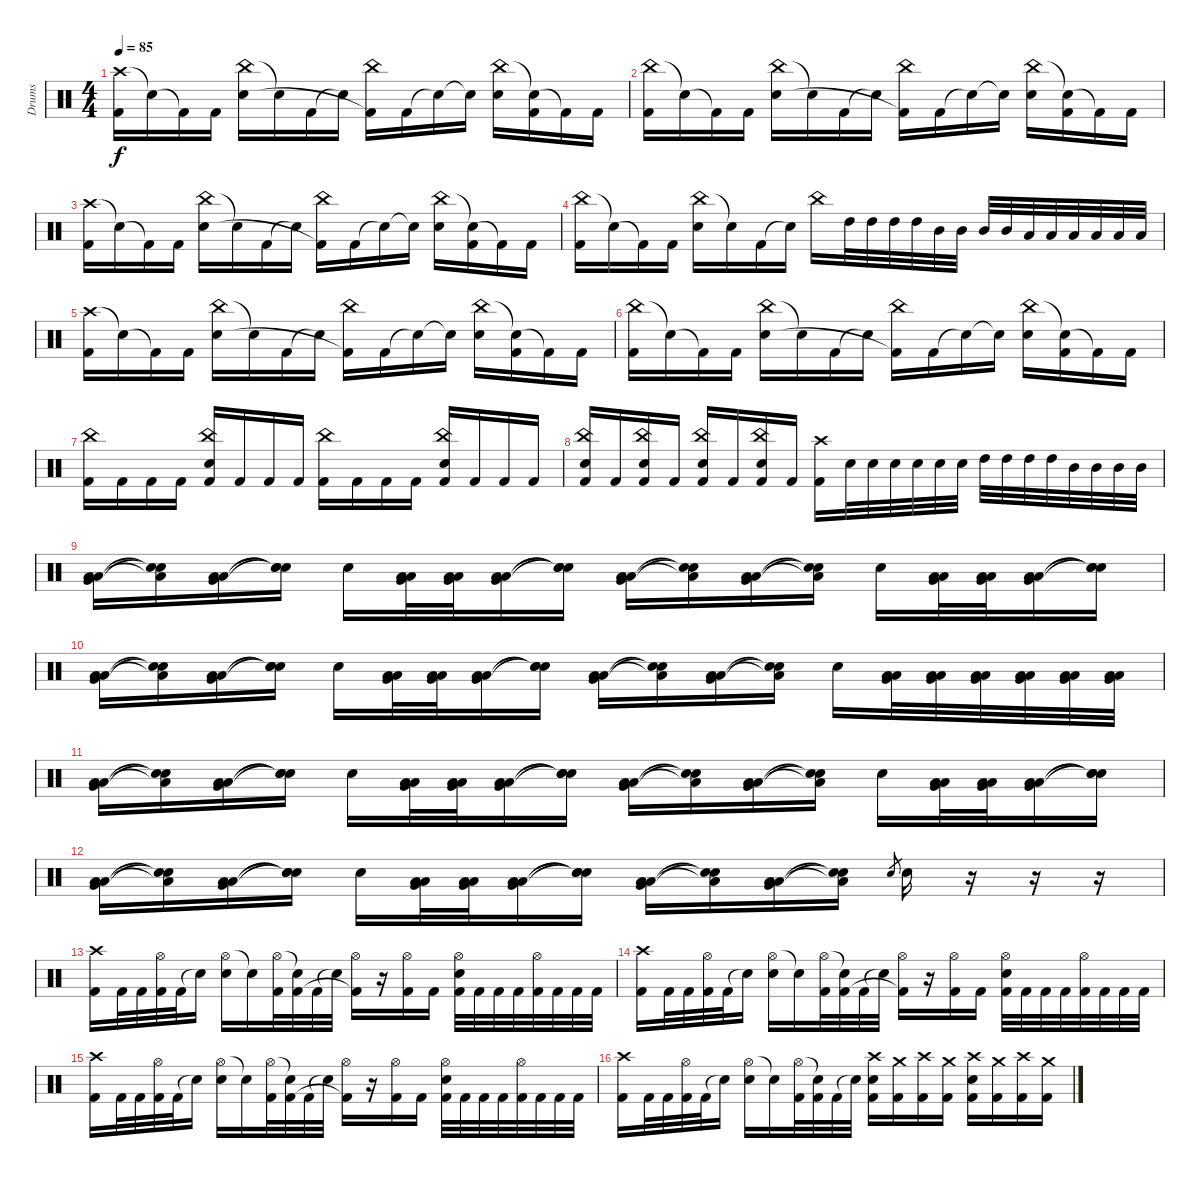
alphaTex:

\track ("Drums" "Drums") {instrument percussion}
\staff {score}
\articulation defaults
\ts (4 4)
\tempo 85
\clef neutral
\ks c
("Crash high (hit)" "Kick (hit) 2").16{dy f} "Snare (hit)"{t}.16 "Kick (hit) 2"{t}.16 "Kick (hit) 2".16 ("China (hit)" "Electric Snare (hit)").16 "Snare (hit)"{t}.16 "Kick (hit) 2".16 "Snare (hit)"{t}.16 ("China (hit)" "Kick (hit) 2"{t}).16 "Kick (hit) 2".16 "Snare (hit)"{t}.16 "Snare (hit)"{t}.16 ("China (hit)" "Electric Snare (hit)").16 ("Snare (hit)"{t} "Kick (hit) 2").16 "Kick (hit) 2"{t}.16 "Kick (hit) 2".16 |
("China (hit)" "Kick (hit) 2").16 "Snare (hit)"{t}.16 "Kick (hit) 2"{t}.16 "Kick (hit) 2".16 ("China (hit)" "Electric Snare (hit)").16 "Snare (hit)"{t}.16 "Kick (hit) 2".16 "Snare (hit)"{t}.16 ("China (hit)" "Kick (hit) 2"{t}).16 "Kick (hit) 2".16 "Snare (hit)"{t}.16 "Snare (hit)"{t}.16 ("China (hit)" "Electric Snare (hit)").16 ("Snare (hit)"{t} "Kick (hit) 2").16 "Kick (hit) 2"{t}.16 "Kick (hit) 2".16 |
("Crash high (hit)" "Kick (hit) 2").16 "Snare (hit)"{t}.16 "Kick (hit) 2"{t}.16 "Kick (hit) 2".16 ("China (hit)" "Electric Snare (hit)").16 "Snare (hit)"{t}.16 "Kick (hit) 2".16 "Snare (hit)"{t}.16 ("China (hit)" "Kick (hit) 2"{t}).16 "Kick (hit) 2".16 "Snare (hit)"{t}.16 "Snare (hit)"{t}.16 ("China (hit)" "Electric Snare (hit)").16 ("Snare (hit)"{t} "Kick (hit) 2").16 "Kick (hit) 2"{t}.16 "Kick (hit) 2".16 |
("China (hit)" "Kick (hit) 2").16 "Snare (hit)"{t}.16 "Kick (hit) 2"{t}.16 "Kick (hit) 2".16 ("China (hit)" "Electric Snare (hit)").16 "Snare (hit)"{t}.16 "Kick (hit) 2".16 "Snare (hit)"{t}.16 "China (hit)".16 "High Tom (hit)".32 "High Tom (hit)".32 "High Tom (hit)".32 "High Tom (hit)".32 "Mid Tom (hit)".32 "Mid Tom (hit)".32 "Mid Tom (hit)".32 "Mid Tom (hit)".32 "Low Tom (hit)".32 "Low Tom (hit)".32 "Low Tom (hit)".32 "Low Tom (hit)".32 "Low Tom (hit)".32 "Low Tom (hit)".32 |
("Crash high (hit)" "Kick (hit) 2").16 "Snare (hit)"{t}.16 "Kick (hit) 2"{t}.16 "Kick (hit) 2".16 ("China (hit)" "Electric Snare (hit)").16 "Snare (hit)"{t}.16 "Kick (hit) 2".16 "Snare (hit)"{t}.16 ("China (hit)" "Kick (hit) 2"{t}).16 "Kick (hit) 2".16 "Snare (hit)"{t}.16 "Snare (hit)"{t}.16 ("China (hit)" "Electric Snare (hit)").16 ("Snare (hit)"{t} "Kick (hit) 2").16 "Kick (hit) 2"{t}.16 "Kick (hit) 2".16 |
("China (hit)" "Kick (hit) 2").16 "Snare (hit)"{t}.16 "Kick (hit) 2"{t}.16 "Kick (hit) 2".16 ("China (hit)" "Electric Snare (hit)").16 "Snare (hit)"{t}.16 "Kick (hit) 2".16 "Snare (hit)"{t}.16 ("China (hit)" "Kick (hit) 2"{t}).16 "Kick (hit) 2".16 "Snare (hit)"{t}.16 "Snare (hit)"{t}.16 ("China (hit)" "Electric Snare (hit)").16 ("Snare (hit)"{t} "Kick (hit) 2").16 "Kick (hit) 2"{t}.16 "Kick (hit) 2".16 |
("China (hit)" "Kick (hit) 2").16 "Kick (hit) 2".16 "Kick (hit) 2".16 "Kick (hit) 2".16 ("China (hit)" "Electric Snare (hit)" "Kick (hit) 2").16 "Kick (hit) 2".16 "Kick (hit) 2".16 "Kick (hit) 2".16 ("China (hit)" "Kick (hit) 2").16 "Kick (hit) 2".16 "Kick (hit) 2".16 "Kick (hit) 2".16 ("China (hit)" "Electric Snare (hit)" "Kick (hit) 2").16 "Kick (hit) 2".16 "Kick (hit) 2".16 "Kick (hit) 2".16 |
("China (hit)" "Electric Snare (hit)" "Kick (hit) 2").16 "Kick (hit) 2".16 ("China (hit)" "Electric Snare (hit)" "Kick (hit) 2").16 "Kick (hit) 2".16 ("China (hit)" "Electric Snare (hit)" "Kick (hit) 2").16 "Kick (hit) 2".16 ("China (hit)" "Electric Snare (hit)" "Kick (hit) 2").16 "Kick (hit) 2".16 ("Crash high (hit)" "Kick (hit) 2").16 "Electric Snare (hit)".32 "Electric Snare (hit)".32 "Electric Snare (hit)".32 "Electric Snare (hit)".32 "Electric Snare (hit)".32 "Electric Snare (hit)".32 "High Tom (hit)".32 "High Tom (hit)".32 "High Tom (hit)".32 "High Tom (hit)".32 "Mid Tom (hit)".32 "Mid Tom (hit)".32 "Mid Tom (hit)".32 "Mid Tom (hit)".32 |
("Low Tom (hit)" "Very Low Tom (hit)" "Low Floor Tom (hit)").16 ("Snare (hit)"{t} "Snare (hit)"{t} "Low Floor Tom (hit)"{t}).16 ("Low Tom (hit)" "Very Low Tom (hit)" "Low Floor Tom (hit)").16 ("Snare (hit)"{t} "Snare (hit)"{t} "Snare (hit)"{t}).16 "Electric Snare (hit)".16 ("Low Tom (hit)" "Very Low Tom (hit)" "Low Floor Tom (hit)").32 ("Low Tom (hit)" "Very Low Tom (hit)" "Low Floor Tom (hit)").32 ("Low Tom (hit)" "Very Low Tom (hit)" "Low Floor Tom (hit)").16 ("Snare (hit)"{t} "Snare (hit)"{t} "Snare (hit)"{t}).16 ("Low Tom (hit)" "Very Low Tom (hit)" "Low Floor Tom (hit)").16 ("Snare (hit)"{t} "Snare (hit)"{t} "Low Floor Tom (hit)"{t}).16 ("Low Tom (hit)" "Very Low Tom (hit)" "Low Floor Tom (hit)").16 ("Low Tom (hit)"{t} "Snare (hit)"{t} "Snare (hit)"{t}).16 "Electric Snare (hit)".16 ("Low Tom (hit)" "Very Low Tom (hit)" "Low Floor Tom (hit)").32 ("Low Tom (hit)" "Very Low Tom (hit)" "Low Floor Tom (hit)").32 ("Low Tom (hit)" "Very Low Tom (hit)" "Low Floor Tom (hit)").16 ("Snare (hit)"{t} "Snare (hit)"{t} "Snare (hit)"{t}).16 |
("Low Tom (hit)" "Very Low Tom (hit)" "Low Floor Tom (hit)").16 ("Snare (hit)"{t} "Snare (hit)"{t} "Low Floor Tom (hit)"{t}).16 ("Low Tom (hit)" "Very Low Tom (hit)" "Low Floor Tom (hit)").16 ("Snare (hit)"{t} "Snare (hit)"{t} "Snare (hit)"{t}).16 "Electric Snare (hit)".16 ("Low Tom (hit)" "Very Low Tom (hit)" "Low Floor Tom (hit)").32 ("Low Tom (hit)" "Very Low Tom (hit)" "Low Floor Tom (hit)").32 ("Low Tom (hit)" "Very Low Tom (hit)" "Low Floor Tom (hit)").16 ("Snare (hit)"{t} "Snare (hit)"{t} "Snare (hit)"{t}).16 ("Low Tom (hit)" "Very Low Tom (hit)" "Low Floor Tom (hit)").16 ("Snare (hit)"{t} "Snare (hit)"{t} "Low Floor Tom (hit)"{t}).16 ("Low Tom (hit)" "Very Low Tom (hit)" "Low Floor Tom (hit)").16 ("Low Tom (hit)"{t} "Snare (hit)"{t} "Snare (hit)"{t}).16 "Electric Snare (hit)".16 ("Low Tom (hit)" "Low Floor Tom (hit)" "Very Low Tom (hit)").32 ("Low Tom (hit)" "Low Floor Tom (hit)" "Very Low Tom (hit)").32 ("Low Tom (hit)" "Low Floor Tom (hit)" "Very Low Tom (hit)").32 ("Low Tom (hit)" "Low Floor Tom (hit)" "Very Low Tom (hit)").32 ("Low Tom (hit)" "Low Floor Tom (hit)" "Very Low Tom (hit)").32 ("Low Tom (hit)" "Low Floor Tom (hit)" "Very Low Tom (hit)").32 |
("Low Tom (hit)" "Very Low Tom (hit)" "Low Floor Tom (hit)").16 ("Snare (hit)"{t} "Snare (hit)"{t} "Low Floor Tom (hit)"{t}).16 ("Low Tom (hit)" "Very Low Tom (hit)" "Low Floor Tom (hit)").16 ("Snare (hit)"{t} "Snare (hit)"{t} "Snare (hit)"{t}).16 "Electric Snare (hit)".16 ("Low Tom (hit)" "Very Low Tom (hit)" "Low Floor Tom (hit)").32 ("Low Tom (hit)" "Very Low Tom (hit)" "Low Floor Tom (hit)").32 ("Low Tom (hit)" "Very Low Tom (hit)" "Low Floor Tom (hit)").16 ("Snare (hit)"{t} "Snare (hit)"{t} "Snare (hit)"{t}).16 ("Low Tom (hit)" "Very Low Tom (hit)" "Low Floor Tom (hit)").16 ("Snare (hit)"{t} "Snare (hit)"{t} "Low Floor Tom (hit)"{t}).16 ("Low Tom (hit)" "Very Low Tom (hit)" "Low Floor Tom (hit)").16 ("Low Tom (hit)"{t} "Snare (hit)"{t} "Snare (hit)"{t}).16 "Electric Snare (hit)".16 ("Low Tom (hit)" "Very Low Tom (hit)" "Low Floor Tom (hit)").32 ("Low Tom (hit)" "Very Low Tom (hit)" "Low Floor Tom (hit)").32 ("Low Tom (hit)" "Very Low Tom (hit)" "Low Floor Tom (hit)").16 ("Snare (hit)"{t} "Snare (hit)"{t} "Snare (hit)"{t}).16 |
("Low Tom (hit)" "Very Low Tom (hit)" "Low Floor Tom (hit)").16 ("Snare (hit)"{t} "Snare (hit)"{t} "Low Floor Tom (hit)"{t}).16 ("Low Tom (hit)" "Very Low Tom (hit)" "Low Floor Tom (hit)").16 ("Snare (hit)"{t} "Snare (hit)"{t} "Snare (hit)"{t}).16 "Electric Snare (hit)".16 ("Low Tom (hit)" "Very Low Tom (hit)" "Low Floor Tom (hit)").32 ("Low Tom (hit)" "Very Low Tom (hit)" "Low Floor Tom (hit)").32 ("Low Tom (hit)" "Very Low Tom (hit)" "Low Floor Tom (hit)").16 ("Snare (hit)"{t} "Snare (hit)"{t} "Snare (hit)"{t}).16 ("Low Tom (hit)" "Very Low Tom (hit)" "Low Floor Tom (hit)").16 ("Snare (hit)"{t} "Snare (hit)"{t} "Low Floor Tom (hit)"{t}).16 ("Low Tom (hit)" "Very Low Tom (hit)" "Low Floor Tom (hit)").16 ("Low Tom (hit)"{t} "Snare (hit)"{t} "Snare (hit)"{t}).16 "Electric Snare (hit)".8{gr} "Electric Snare (hit)".16 r.16 r.16 r.16 |
("Crash high (hit)" "Kick (hit) 2").16 "Kick (hit) 2".32 "Kick (hit) 2".32 ("Hi-Hat (open)" "Kick (hit) 2").32 "Kick (hit) 2".32 "Snare (hit)"{t}.16 ("Hi-Hat (open)" "Electric Snare (hit)").16 "Snare (hit)"{t}.16 ("Hi-Hat (open)" "Kick (hit) 2").32 ("Snare (hit)"{t} "Kick (hit) 2").32 "Kick (hit) 2".32 "Snare (hit)"{t}.32 ("Hi-Hat (open)" "Kick (hit) 2"{t}).16 r.16 ("Hi-Hat (open)" "Kick (hit) 2").16 "Kick (hit) 2".16 ("Hi-Hat (open)" "Electric Snare (hit)" "Kick (hit) 2").32 "Kick (hit) 2".32 "Kick (hit) 2".32 "Kick (hit) 2".32 ("Hi-Hat (open)" "Kick (hit) 2").32 "Kick (hit) 2".32 "Kick (hit) 2".32 "Kick (hit) 2".32 |
("Crash high (hit)" "Kick (hit) 2").16 "Kick (hit) 2".32 "Kick (hit) 2".32 ("Hi-Hat (open)" "Kick (hit) 2").32 "Kick (hit) 2".32 "Snare (hit)"{t}.16 ("Hi-Hat (open)" "Electric Snare (hit)").16 "Snare (hit)"{t}.16 ("Hi-Hat (open)" "Kick (hit) 2").32 ("Snare (hit)"{t} "Kick (hit) 2").32 "Kick (hit) 2".32 "Snare (hit)"{t}.32 ("Hi-Hat (open)" "Kick (hit) 2"{t}).16 r.16 ("Hi-Hat (open)" "Kick (hit) 2").16 "Kick (hit) 2".16 ("Hi-Hat (open)" "Electric Snare (hit)" "Kick (hit) 2").32 "Kick (hit) 2".32 "Kick (hit) 2".32 "Kick (hit) 2".32 ("Hi-Hat (open)" "Kick (hit) 2").32 "Kick (hit) 2".32 "Kick (hit) 2".32 "Kick (hit) 2".32 |
("Crash high (hit)" "Kick (hit) 2").16 "Kick (hit) 2".32 "Kick (hit) 2".32 ("Hi-Hat (open)" "Kick (hit) 2").32 "Kick (hit) 2".32 "Snare (hit)"{t}.16 ("Hi-Hat (open)" "Electric Snare (hit)").16 "Snare (hit)"{t}.16 ("Hi-Hat (open)" "Kick (hit) 2").32 ("Snare (hit)"{t} "Kick (hit) 2").32 "Kick (hit) 2".32 "Snare (hit)"{t}.32 ("Hi-Hat (open)" "Kick (hit) 2"{t}).16 r.16 ("Hi-Hat (open)" "Kick (hit) 2").16 "Kick (hit) 2".16 ("Hi-Hat (open)" "Electric Snare (hit)" "Kick (hit) 2").32 "Kick (hit) 2".32 "Kick (hit) 2".32 "Kick (hit) 2".32 ("Hi-Hat (open)" "Kick (hit) 2").32 "Kick (hit) 2".32 "Kick (hit) 2".32 "Kick (hit) 2".32 |
("Crash high (hit)" "Kick (hit) 2").16 "Kick (hit) 2".32 "Kick (hit) 2".32 ("Hi-Hat (open)" "Kick (hit) 2").32 "Kick (hit) 2".32 "Snare (hit)"{t}.16 ("Hi-Hat (open)" "Electric Snare (hit)").16 "Snare (hit)"{t}.16 ("Hi-Hat (open)" "Kick (hit) 2").32 ("Snare (hit)"{t} "Kick (hit) 2").32 "Kick (hit) 2".32 "Snare (hit)"{t}.32 ("Crash high (hit)" "Electric Snare (hit)" "Kick (hit) 2").16 ("Crash medium (hit)" "Kick (hit) 2").16 ("Crash high (hit)" "Kick (hit) 2").16 ("Crash medium (hit)" "Kick (hit) 2").16 ("Crash high (hit)" "Electric Snare (hit)" "Kick (hit) 2").16 ("Crash medium (hit)" "Kick (hit) 2").16 ("Crash high (hit)" "Kick (hit) 2").16 ("Crash medium (hit)" "Kick (hit) 2").16
